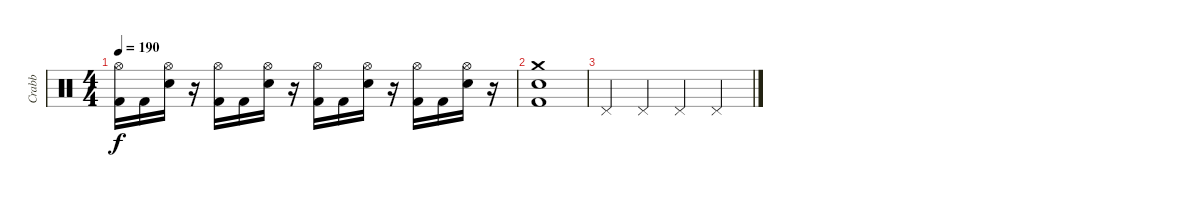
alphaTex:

\track ("Crabb" "Crabb") {instrument percussion}
\staff {score}
\articulation defaults
\ts (4 4)
\tempo 190
\clef neutral
\ks c
("Hi-Hat (open)" "Kick (hit) 2").16{dy f} "Kick (hit) 2".16 ("Hi-Hat (open)" "Electric Snare (hit)").16 r.16 ("Hi-Hat (open)" "Kick (hit) 2").16 "Kick (hit) 2".16 ("Hi-Hat (open)" "Electric Snare (hit)").16 r.16 ("Hi-Hat (open)" "Kick (hit) 2").16 "Kick (hit) 2".16 ("Hi-Hat (open)" "Electric Snare (hit)").16 r.16 ("Hi-Hat (open)" "Kick (hit) 2").16 "Kick (hit) 2".16 ("Hi-Hat (open)" "Electric Snare (hit)").16 r.16 |
("Electric Snare (hit)" "Crash medium (hit)" "Kick (hit) 2").1 |
"Pedal Hi-Hat (hit)".4 "Pedal Hi-Hat (hit)".4 "Pedal Hi-Hat (hit)".4 "Pedal Hi-Hat (hit)".4
